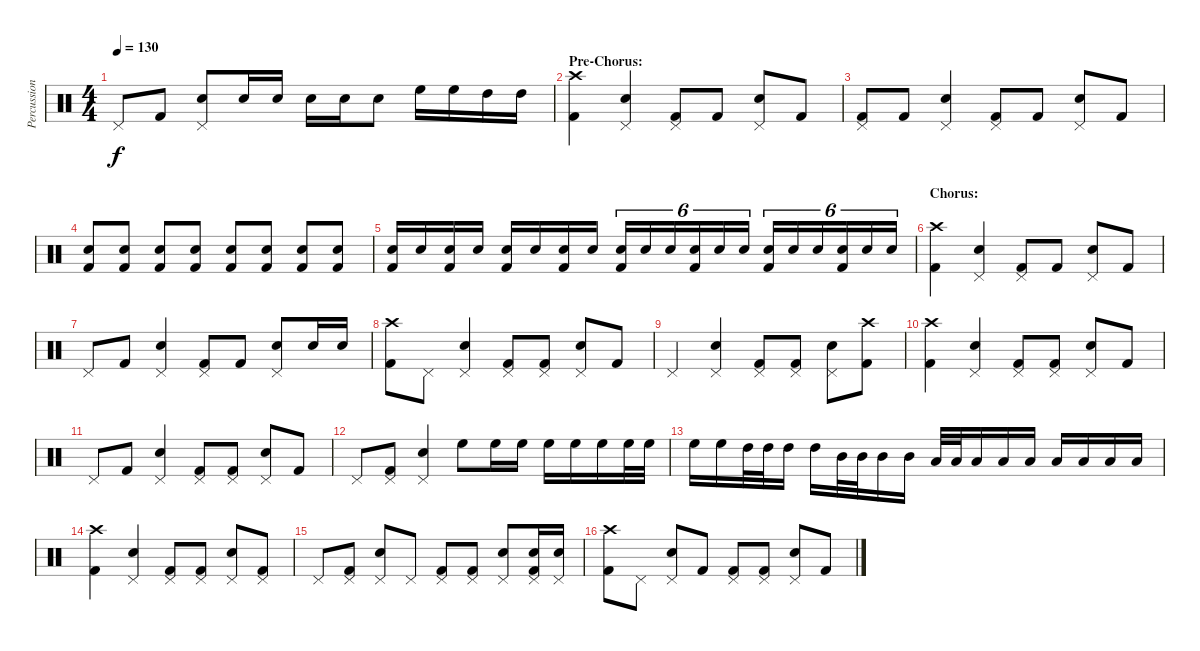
\track ("Percussion" "Percussion") {instrument percussion}
\staff {score}
\articulation defaults
\ts (4 4)
\tempo 130
\clef neutral
\ks c "Pedal Hi-Hat (hit)".8{dy f} "Kick (hit) 2".8
("Pedal Hi-Hat (hit)" "Electric Snare (hit)").8 "Electric Snare (hit)".16 "Electric Snare (hit)".16 "Electric Snare (hit)".16 "Electric Snare (hit)".16 "Electric Snare (hit)".8 "High Floor Tom (hit)".16 "High Floor Tom (hit)".16 "High Tom (hit)".16 "High Tom (hit)".16 |
\section ("" "Pre-Chorus:")
("Crash high (hit)" "Kick (hit) 2").4 ("Pedal Hi-Hat (hit)" "Electric Snare (hit)").4 ("Pedal Hi-Hat (hit)" "Kick (hit) 2").8 "Kick (hit) 2".8 ("Pedal Hi-Hat (hit)" "Electric Snare (hit)").8 "Kick (hit) 2".8 |
("Pedal Hi-Hat (hit)" "Kick (hit) 2").8 "Kick (hit) 2".8 ("Pedal Hi-Hat (hit)" "Electric Snare (hit)").4 ("Pedal Hi-Hat (hit)" "Kick (hit) 2").8 "Kick (hit) 2".8 ("Pedal Hi-Hat (hit)" "Electric Snare (hit)").8 "Kick (hit) 2".8 |
("Electric Snare (hit)" "Kick (hit) 2").8 ("Electric Snare (hit)" "Kick (hit) 2").8 ("Electric Snare (hit)" "Kick (hit) 2").8 ("Electric Snare (hit)" "Kick (hit) 2").8 ("Electric Snare (hit)" "Kick (hit) 2").8 ("Electric Snare (hit)" "Kick (hit) 2").8 ("Electric Snare (hit)" "Kick (hit) 2").8 ("Electric Snare (hit)" "Kick (hit) 2").8 |
("Electric Snare (hit)" "Kick (hit) 2").16 "Electric Snare (hit)".16 ("Electric Snare (hit)" "Kick (hit) 2").16 "Electric Snare (hit)".16 ("Electric Snare (hit)" "Kick (hit) 2").16 "Electric Snare (hit)".16 ("Electric Snare (hit)" "Kick (hit) 2").16 "Electric Snare (hit)".16 ("Electric Snare (hit)" "Kick (hit) 2").16{tu (6 4)} "Electric Snare (hit)".16{tu (6 4)} "Electric Snare (hit)".16{tu (6 4)} ("Electric Snare (hit)" "Kick (hit) 2").16{tu (6 4)} "Electric Snare (hit)".16{tu (6 4)} "Electric Snare (hit)".16{tu (6 4)} ("Electric Snare (hit)" "Kick (hit) 2").16{tu (6 4)} "Electric Snare (hit)".16{tu (6 4)} "Electric Snare (hit)".16{tu (6 4)} ("Electric Snare (hit)" "Kick (hit) 2").16{tu (6 4)} "Electric Snare (hit)".16{tu (6 4)} "Electric Snare (hit)".16{tu (6 4)} |
\section ("" "Chorus:")
("Crash high (hit)" "Kick (hit) 2").4 ("Pedal Hi-Hat (hit)" "Electric Snare (hit)").4 ("Pedal Hi-Hat (hit)" "Kick (hit) 2").8 "Kick (hit) 2".8 ("Pedal Hi-Hat (hit)" "Electric Snare (hit)").8 "Kick (hit) 2".8 |
"Pedal Hi-Hat (hit)".8 "Kick (hit) 2".8 ("Pedal Hi-Hat (hit)" "Electric Snare (hit)").4 ("Pedal Hi-Hat (hit)" "Kick (hit) 2").8 "Kick (hit) 2".8 ("Pedal Hi-Hat (hit)" "Electric Snare (hit)").8 "Electric Snare (hit)".16 "Electric Snare (hit)".16 |
("Crash high (hit)" "Kick (hit) 2").8 "Pedal Hi-Hat (hit)".8 ("Pedal Hi-Hat (hit)" "Electric Snare (hit)").4 ("Pedal Hi-Hat (hit)" "Kick (hit) 2").8 ("Pedal Hi-Hat (hit)" "Kick (hit) 2").8 ("Pedal Hi-Hat (hit)" "Electric Snare (hit)").8 "Kick (hit) 2".8 |
"Pedal Hi-Hat (hit)".4 ("Pedal Hi-Hat (hit)" "Electric Snare (hit)").4 ("Pedal Hi-Hat (hit)" "Kick (hit) 2").8 ("Pedal Hi-Hat (hit)" "Kick (hit) 2").8 ("Pedal Hi-Hat (hit)" "Electric Snare (hit)").8 ("Crash high (hit)" "Kick (hit) 2").8 |
("Crash high (hit)" "Kick (hit) 2").4 ("Pedal Hi-Hat (hit)" "Electric Snare (hit)").4 ("Pedal Hi-Hat (hit)" "Kick (hit) 2").8 ("Pedal Hi-Hat (hit)" "Kick (hit) 2").8 ("Pedal Hi-Hat (hit)" "Electric Snare (hit)").8 "Kick (hit) 2".8 |
"Pedal Hi-Hat (hit)".8 "Kick (hit) 2".8 ("Pedal Hi-Hat (hit)" "Electric Snare (hit)").4 ("Pedal Hi-Hat (hit)" "Kick (hit) 2").8 ("Pedal Hi-Hat (hit)" "Kick (hit) 2").8 ("Pedal Hi-Hat (hit)" "Electric Snare (hit)").8 "Kick (hit) 2".8 |
"Pedal Hi-Hat (hit)".8 ("Pedal Hi-Hat (hit)" "Kick (hit) 2").8 ("Pedal Hi-Hat (hit)" "Electric Snare (hit)").4 "High Floor Tom (hit)".8 "High Floor Tom (hit)".16 "High Floor Tom (hit)".16 "High Floor Tom (hit)".16 "High Floor Tom (hit)".16 "High Floor Tom (hit)".16 "High Floor Tom (hit)".32 "High Floor Tom (hit)".32 |
"High Floor Tom (hit)".16 "High Floor Tom (hit)".16 "High Tom (hit)".32 "High Tom (hit)".32 "High Tom (hit)".16 "High Tom (hit)".16 "Mid Tom (hit)".32 "Mid Tom (hit)".32 "Mid Tom (hit)".16 "Mid Tom (hit)".16 "Low Tom (hit)".32 "Low Tom (hit)".32 "Low Tom (hit)".16 "Low Tom (hit)".16 "Low Tom (hit)".16 "Low Tom (hit)".16 "Low Tom (hit)".16 "Low Tom (hit)".16 "Low Tom (hit)".16 |
("Crash high (hit)" "Kick (hit) 2").4 ("Pedal Hi-Hat (hit)" "Electric Snare (hit)").4 ("Pedal Hi-Hat (hit)" "Kick (hit) 2").8 ("Pedal Hi-Hat (hit)" "Kick (hit) 2").8 ("Pedal Hi-Hat (hit)" "Electric Snare (hit)").8 ("Pedal Hi-Hat (hit)" "Kick (hit) 2").8 |
"Pedal Hi-Hat (hit)".8 ("Pedal Hi-Hat (hit)" "Kick (hit) 2").8 ("Pedal Hi-Hat (hit)" "Electric Snare (hit)").8 "Pedal Hi-Hat (hit)".8 ("Pedal Hi-Hat (hit)" "Kick (hit) 2").8 ("Pedal Hi-Hat (hit)" "Kick (hit) 2").8 ("Pedal Hi-Hat (hit)" "Electric Snare (hit)").8 ("Pedal Hi-Hat (hit)" "Electric Snare (hit)" "Kick (hit) 2").16 ("Pedal Hi-Hat (hit)" "Electric Snare (hit)").16 |
("Crash high (hit)" "Kick (hit) 2").8 "Pedal Hi-Hat (hit)".8 ("Pedal Hi-Hat (hit)" "Electric Snare (hit)").8 "Kick (hit) 2".8 ("Pedal Hi-Hat (hit)" "Kick (hit) 2").8 ("Pedal Hi-Hat (hit)" "Kick (hit) 2").8 ("Pedal Hi-Hat (hit)" "Electric Snare (hit)").8 "Kick (hit) 2".8
